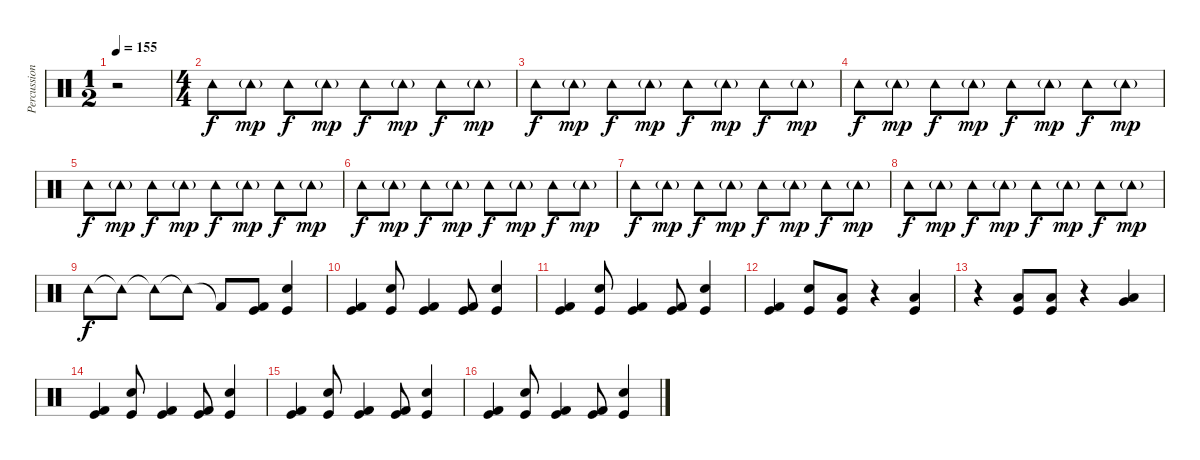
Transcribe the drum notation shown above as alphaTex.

\track ("Percussion" "Percussion") {instrument percussion}
\staff {score}
\articulation defaults
\ts (1 2)
\tempo 155
\clef neutral
\ks c
r.2{dy f} |
\ts (4 4)
"Tambourine (hit)".8{balance 4} "Tambourine (hit)"{g}.8{dy mp} "Tambourine (hit)".8{dy f} "Tambourine (hit)"{g}.8{dy mp} "Tambourine (hit)".8{dy f} "Tambourine (hit)"{g}.8{dy mp} "Tambourine (hit)".8{dy f} "Tambourine (hit)"{g}.8{dy mp} |
"Tambourine (hit)".8{dy f} "Tambourine (hit)"{g}.8{dy mp} "Tambourine (hit)".8{dy f} "Tambourine (hit)"{g}.8{dy mp} "Tambourine (hit)".8{dy f} "Tambourine (hit)"{g}.8{dy mp} "Tambourine (hit)".8{dy f} "Tambourine (hit)"{g}.8{dy mp} |
"Tambourine (hit)".8{dy f} "Tambourine (hit)"{g}.8{dy mp} "Tambourine (hit)".8{dy f} "Tambourine (hit)"{g}.8{dy mp} "Tambourine (hit)".8{dy f} "Tambourine (hit)"{g}.8{dy mp} "Tambourine (hit)".8{dy f} "Tambourine (hit)"{g}.8{dy mp} |
"Tambourine (hit)".8{dy f} "Tambourine (hit)"{g}.8{dy mp} "Tambourine (hit)".8{dy f} "Tambourine (hit)"{g}.8{dy mp} "Tambourine (hit)".8{dy f} "Tambourine (hit)"{g}.8{dy mp} "Tambourine (hit)".8{dy f} "Tambourine (hit)"{g}.8{dy mp} |
"Tambourine (hit)".8{dy f} "Tambourine (hit)"{g}.8{dy mp} "Tambourine (hit)".8{dy f} "Tambourine (hit)"{g}.8{dy mp} "Tambourine (hit)".8{dy f} "Tambourine (hit)"{g}.8{dy mp} "Tambourine (hit)".8{dy f} "Tambourine (hit)"{g}.8{dy mp} |
"Tambourine (hit)".8{dy f} "Tambourine (hit)"{g}.8{dy mp} "Tambourine (hit)".8{dy f} "Tambourine (hit)"{g}.8{dy mp} "Tambourine (hit)".8{dy f} "Tambourine (hit)"{g}.8{dy mp} "Tambourine (hit)".8{dy f} "Tambourine (hit)"{g}.8{dy mp} |
"Tambourine (hit)".8{dy f} "Tambourine (hit)"{g}.8{dy mp} "Tambourine (hit)".8{dy f} "Tambourine (hit)"{g}.8{dy mp} "Tambourine (hit)".8{dy f} "Tambourine (hit)"{g}.8{dy mp} "Tambourine (hit)".8{dy f} "Tambourine (hit)"{g}.8{dy mp} |
"Tambourine (hit)".8{dy f} "Tambourine (hit)"{t}.8 "Tambourine (hit)"{t}.8 "Tambourine (hit)"{t}.8 "Kick (hit) 2"{t}.8 ("Kick (hit) 2" "Kick (hit)").8{balance 8} ("Electric Snare (hit)" "Kick (hit)").4 |
("Kick (hit) 2" "Kick (hit)").4 ("Electric Snare (hit)" "Kick (hit)").8 ("Kick (hit) 2" "Kick (hit)").4 ("Kick (hit) 2" "Kick (hit)").8 ("Electric Snare (hit)" "Kick (hit)").4 |
("Kick (hit) 2" "Kick (hit)").4 ("Electric Snare (hit)" "Kick (hit)").8 ("Kick (hit) 2" "Kick (hit)").4 ("Kick (hit) 2" "Kick (hit)").8 ("Electric Snare (hit)" "Kick (hit)").4 |
("Kick (hit) 2" "Kick (hit)").4 ("Electric Snare (hit)" "Kick (hit)").8 ("Low Floor Tom (hit)" "Kick (hit)").8 r.4 ("Low Floor Tom (hit)" "Kick (hit)").4 |
r.4 ("Low Floor Tom (hit)" "Kick (hit)").8 ("Low Floor Tom (hit)" "Kick (hit)").8 r.4 ("Low Floor Tom (hit)" "Very Low Tom (hit)").4 |
("Kick (hit) 2" "Kick (hit)").4 ("Electric Snare (hit)" "Kick (hit)").8 ("Kick (hit) 2" "Kick (hit)").4 ("Kick (hit) 2" "Kick (hit)").8 ("Electric Snare (hit)" "Kick (hit)").4 |
("Kick (hit) 2" "Kick (hit)").4 ("Electric Snare (hit)" "Kick (hit)").8 ("Kick (hit) 2" "Kick (hit)").4 ("Kick (hit) 2" "Kick (hit)").8 ("Electric Snare (hit)" "Kick (hit)").4 |
("Kick (hit) 2" "Kick (hit)").4 ("Electric Snare (hit)" "Kick (hit)").8 ("Kick (hit) 2" "Kick (hit)").4 ("Kick (hit) 2" "Kick (hit)").8 ("Electric Snare (hit)" "Kick (hit)").4
